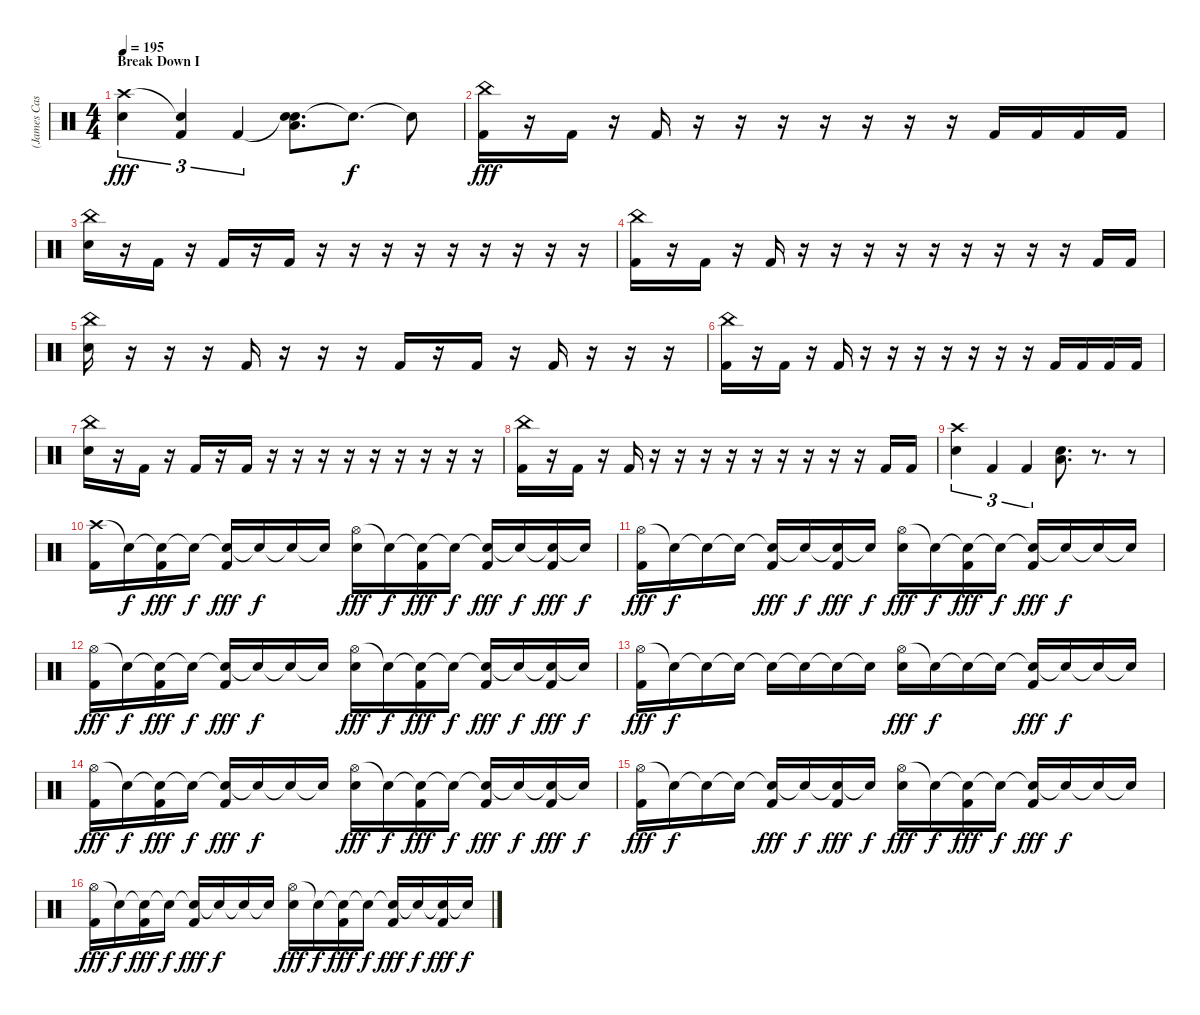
\track ("(James Cassells) Drums" "(James Cas") {instrument percussion}
\staff {score}
\articulation defaults
\ts (4 4)
\section ("" "Break Down I")
\tempo 195
\clef neutral
\ks c
("Crash high (hit)" "Electric Snare (hit)").4{tu (3 2) dy fff} ("Snare (hit)"{t} "Kick (hit) 2").4{tu (3 2)} "Kick (hit) 2".4{tu (3 2)} ("Snare (hit)"{t} "Electric Snare (hit)" "Low Floor Tom (hit)").8{d} "Snare (hit)"{t}.8{d dy f} "Snare (hit)"{t}.8 |
("China (hit)" "Kick (hit) 2").16{dy fff} r.16 "Kick (hit) 2".16 r.16 "Kick (hit) 2".16 r.16 r.16 r.16 r.16 r.16 r.16 r.16 "Kick (hit) 2".16 "Kick (hit) 2".16 "Kick (hit) 2".16 "Kick (hit) 2".16 |
("China (hit)" "Electric Snare (hit)").16 r.16 "Kick (hit) 2".16 r.16 "Kick (hit) 2".16 r.16 "Kick (hit) 2".16 r.16 r.16 r.16 r.16 r.16 r.16 r.16 r.16 r.16 |
("China (hit)" "Kick (hit) 2").16 r.16 "Kick (hit) 2".16 r.16 "Kick (hit) 2".16 r.16 r.16 r.16 r.16 r.16 r.16 r.16 r.16 r.16 "Kick (hit) 2".16 "Kick (hit) 2".16 |
("China (hit)" "Electric Snare (hit)").16 r.16 r.16 r.16 "Kick (hit) 2".16 r.16 r.16 r.16 "Kick (hit) 2".16 r.16 "Kick (hit) 2".16 r.16 "Kick (hit) 2".16 r.16 r.16 r.16 |
("China (hit)" "Kick (hit) 2").16 r.16 "Kick (hit) 2".16 r.16 "Kick (hit) 2".16 r.16 r.16 r.16 r.16 r.16 r.16 r.16 "Kick (hit) 2".16 "Kick (hit) 2".16 "Kick (hit) 2".16 "Kick (hit) 2".16 |
("China (hit)" "Electric Snare (hit)").16 r.16 "Kick (hit) 2".16 r.16 "Kick (hit) 2".16 r.16 "Kick (hit) 2".16 r.16 r.16 r.16 r.16 r.16 r.16 r.16 r.16 r.16 |
("China (hit)" "Kick (hit) 2").16 r.16 "Kick (hit) 2".16 r.16 "Kick (hit) 2".16 r.16 r.16 r.16 r.16 r.16 r.16 r.16 r.16 r.16 "Kick (hit) 2".16 "Kick (hit) 2".16 |
("Crash high (hit)" "Electric Snare (hit)").4{tu (3 2)} "Kick (hit) 2".4{tu (3 2)} "Kick (hit) 2".4{tu (3 2)} ("Electric Snare (hit)" "Low Floor Tom (hit)").8{d} r.8{d} r.8 |
("Crash high (hit)" "Kick (hit) 2").16 "Snare (hit)"{t}.16{dy f} ("Snare (hit)"{t} "Kick (hit) 2").16{dy fff} "Snare (hit)"{t}.16{dy f} ("Snare (hit)"{t} "Kick (hit) 2").16{dy fff} "Snare (hit)"{t}.16{dy f} "Snare (hit)"{t}.16 "Snare (hit)"{t}.16 ("Hi-Hat (open)" "Electric Snare (hit)").16{dy fff} "Snare (hit)"{t}.16{dy f} ("Snare (hit)"{t} "Kick (hit) 2").16{dy fff} "Snare (hit)"{t}.16{dy f} ("Snare (hit)"{t} "Kick (hit) 2").16{dy fff} "Snare (hit)"{t}.16{dy f} ("Snare (hit)"{t} "Kick (hit) 2").16{dy fff} "Snare (hit)"{t}.16{dy f} |
("Hi-Hat (open)" "Kick (hit) 2").16{dy fff} "Snare (hit)"{t}.16{dy f} "Snare (hit)"{t}.16 "Snare (hit)"{t}.16 ("Snare (hit)"{t} "Kick (hit) 2").16{dy fff} "Snare (hit)"{t}.16{dy f} ("Snare (hit)"{t} "Kick (hit) 2").16{dy fff} "Snare (hit)"{t}.16{dy f} ("Hi-Hat (open)" "Electric Snare (hit)").16{dy fff} "Snare (hit)"{t}.16{dy f} ("Snare (hit)"{t} "Kick (hit) 2").16{dy fff} "Snare (hit)"{t}.16{dy f} ("Snare (hit)"{t} "Kick (hit) 2").16{dy fff} "Snare (hit)"{t}.16{dy f} "Snare (hit)"{t}.16 "Snare (hit)"{t}.16 |
("Hi-Hat (open)" "Kick (hit) 2").16{dy fff} "Snare (hit)"{t}.16{dy f} ("Snare (hit)"{t} "Kick (hit) 2").16{dy fff} "Snare (hit)"{t}.16{dy f} ("Snare (hit)"{t} "Kick (hit) 2").16{dy fff} "Snare (hit)"{t}.16{dy f} "Snare (hit)"{t}.16 "Snare (hit)"{t}.16 ("Hi-Hat (open)" "Electric Snare (hit)").16{dy fff} "Snare (hit)"{t}.16{dy f} ("Snare (hit)"{t} "Kick (hit) 2").16{dy fff} "Snare (hit)"{t}.16{dy f} ("Snare (hit)"{t} "Kick (hit) 2").16{dy fff} "Snare (hit)"{t}.16{dy f} ("Snare (hit)"{t} "Kick (hit) 2").16{dy fff} "Snare (hit)"{t}.16{dy f} |
("Hi-Hat (open)" "Kick (hit) 2").16{dy fff} "Snare (hit)"{t}.16{dy f} "Snare (hit)"{t}.16 "Snare (hit)"{t}.16 "Snare (hit)"{t}.16 "Snare (hit)"{t}.16 "Snare (hit)"{t}.16 "Snare (hit)"{t}.16 ("Hi-Hat (open)" "Electric Snare (hit)").16{dy fff} "Snare (hit)"{t}.16{dy f} "Snare (hit)"{t}.16 "Snare (hit)"{t}.16 ("Snare (hit)"{t} "Kick (hit) 2").16{dy fff} "Snare (hit)"{t}.16{dy f} "Snare (hit)"{t}.16 "Snare (hit)"{t}.16 |
("Hi-Hat (open)" "Kick (hit) 2").16{dy fff} "Snare (hit)"{t}.16{dy f} ("Snare (hit)"{t} "Kick (hit) 2").16{dy fff} "Snare (hit)"{t}.16{dy f} ("Snare (hit)"{t} "Kick (hit) 2").16{dy fff} "Snare (hit)"{t}.16{dy f} "Snare (hit)"{t}.16 "Snare (hit)"{t}.16 ("Hi-Hat (open)" "Electric Snare (hit)").16{dy fff} "Snare (hit)"{t}.16{dy f} ("Snare (hit)"{t} "Kick (hit) 2").16{dy fff} "Snare (hit)"{t}.16{dy f} ("Snare (hit)"{t} "Kick (hit) 2").16{dy fff} "Snare (hit)"{t}.16{dy f} ("Snare (hit)"{t} "Kick (hit) 2").16{dy fff} "Snare (hit)"{t}.16{dy f} |
("Hi-Hat (open)" "Kick (hit) 2").16{dy fff} "Snare (hit)"{t}.16{dy f} "Snare (hit)"{t}.16 "Snare (hit)"{t}.16 ("Snare (hit)"{t} "Kick (hit) 2").16{dy fff} "Snare (hit)"{t}.16{dy f} ("Snare (hit)"{t} "Kick (hit) 2").16{dy fff} "Snare (hit)"{t}.16{dy f} ("Hi-Hat (open)" "Electric Snare (hit)").16{dy fff} "Snare (hit)"{t}.16{dy f} ("Snare (hit)"{t} "Kick (hit) 2").16{dy fff} "Snare (hit)"{t}.16{dy f} ("Snare (hit)"{t} "Kick (hit) 2").16{dy fff} "Snare (hit)"{t}.16{dy f} "Snare (hit)"{t}.16 "Snare (hit)"{t}.16 |
("Hi-Hat (open)" "Kick (hit) 2").16{dy fff} "Snare (hit)"{t}.16{dy f} ("Snare (hit)"{t} "Kick (hit) 2").16{dy fff} "Snare (hit)"{t}.16{dy f} ("Snare (hit)"{t} "Kick (hit) 2").16{dy fff} "Snare (hit)"{t}.16{dy f} "Snare (hit)"{t}.16 "Snare (hit)"{t}.16 ("Hi-Hat (open)" "Electric Snare (hit)").16{dy fff} "Snare (hit)"{t}.16{dy f} ("Snare (hit)"{t} "Kick (hit) 2").16{dy fff} "Snare (hit)"{t}.16{dy f} ("Snare (hit)"{t} "Kick (hit) 2").16{dy fff} "Snare (hit)"{t}.16{dy f} ("Snare (hit)"{t} "Kick (hit) 2").16{dy fff} "Snare (hit)"{t}.16{dy f}
